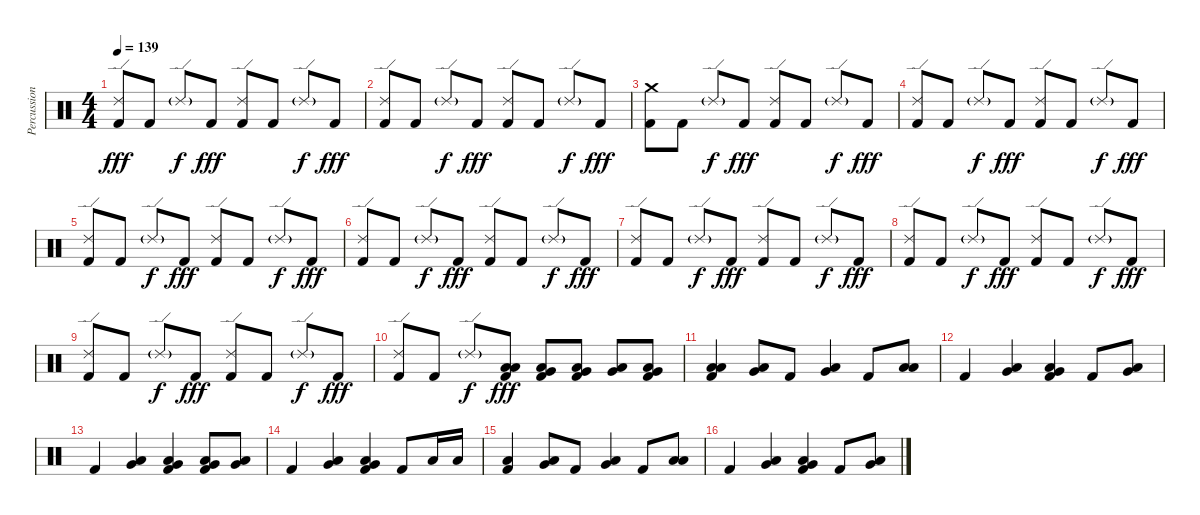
\track ("Percussion" "Percussion") {instrument percussion}
\staff {score}
\articulation defaults
\ts (4 4)
\tempo 139
\clef neutral
\ks c
("Ride (edge) 2" "Kick (hit) 2").8{dy fff} "Kick (hit) 2".8 "Ride (edge) 2"{g}.8{dy f} "Kick (hit) 2".8{dy fff} ("Ride (edge) 2" "Kick (hit) 2").8 "Kick (hit) 2".8 "Ride (edge) 2"{g}.8{dy f} "Kick (hit) 2".8{dy fff} |
("Ride (edge) 2" "Kick (hit) 2").8 "Kick (hit) 2".8 "Ride (edge) 2"{g}.8{dy f} "Kick (hit) 2".8{dy fff} ("Ride (edge) 2" "Kick (hit) 2").8 "Kick (hit) 2".8 "Ride (edge) 2"{g}.8{dy f} "Kick (hit) 2".8{dy fff} |
("Crash medium (hit)" "Kick (hit) 2").8 "Kick (hit) 2".8 "Ride (edge) 2"{g}.8{dy f} "Kick (hit) 2".8{dy fff} ("Ride (edge) 2" "Kick (hit) 2").8 "Kick (hit) 2".8 "Ride (edge) 2"{g}.8{dy f} "Kick (hit) 2".8{dy fff} |
("Ride (edge) 2" "Kick (hit) 2").8 "Kick (hit) 2".8 "Ride (edge) 2"{g}.8{dy f} "Kick (hit) 2".8{dy fff} ("Ride (edge) 2" "Kick (hit) 2").8 "Kick (hit) 2".8 "Ride (edge) 2"{g}.8{dy f} "Kick (hit) 2".8{dy fff} |
("Ride (edge) 2" "Kick (hit) 2").8 "Kick (hit) 2".8 "Ride (edge) 2"{g}.8{dy f} "Kick (hit) 2".8{dy fff} ("Ride (edge) 2" "Kick (hit) 2").8 "Kick (hit) 2".8 "Ride (edge) 2"{g}.8{dy f} "Kick (hit) 2".8{dy fff} |
("Ride (edge) 2" "Kick (hit) 2").8 "Kick (hit) 2".8 "Ride (edge) 2"{g}.8{dy f} "Kick (hit) 2".8{dy fff} ("Ride (edge) 2" "Kick (hit) 2").8 "Kick (hit) 2".8 "Ride (edge) 2"{g}.8{dy f} "Kick (hit) 2".8{dy fff} |
("Ride (edge) 2" "Kick (hit) 2").8 "Kick (hit) 2".8 "Ride (edge) 2"{g}.8{dy f} "Kick (hit) 2".8{dy fff} ("Ride (edge) 2" "Kick (hit) 2").8 "Kick (hit) 2".8 "Ride (edge) 2"{g}.8{dy f} "Kick (hit) 2".8{dy fff} |
("Ride (edge) 2" "Kick (hit) 2").8 "Kick (hit) 2".8 "Ride (edge) 2"{g}.8{dy f} "Kick (hit) 2".8{dy fff} ("Ride (edge) 2" "Kick (hit) 2").8 "Kick (hit) 2".8 "Ride (edge) 2"{g}.8{dy f} "Kick (hit) 2".8{dy fff} |
("Ride (edge) 2" "Kick (hit) 2").8 "Kick (hit) 2".8 "Ride (edge) 2"{g}.8{dy f} "Kick (hit) 2".8{dy fff} ("Ride (edge) 2" "Kick (hit) 2").8 "Kick (hit) 2".8 "Ride (edge) 2"{g}.8{dy f} "Kick (hit) 2".8{dy fff} |
("Ride (edge) 2" "Kick (hit) 2").8 "Kick (hit) 2".8 "Ride (edge) 2"{g}.8{dy f} ("Kick (hit) 2" "Low Tom (hit)" "Low Tom (hit)").8{bd 480 dy fff} ("Kick (hit) 2" "Low Tom (hit)" "Very Low Tom (hit)").8 ("Kick (hit) 2" "Low Tom (hit)" "Very Low Tom (hit)").8 ("Very Low Tom (hit)" "Low Floor Tom (hit)").8 ("Kick (hit) 2" "Very Low Tom (hit)" "Low Floor Tom (hit)").8 |
("Kick (hit) 2" "Low Floor Tom (hit)" "Low Floor Tom (hit)").4{bd 240} ("Very Low Tom (hit)" "Low Floor Tom (hit)").8{bd 480} "Kick (hit) 2".8 ("Very Low Tom (hit)" "Low Floor Tom (hit)").4{bd 480} "Kick (hit) 2".8 ("Low Floor Tom (hit)" "Low Floor Tom (hit)").8{bd 480} |
"Kick (hit) 2".4 ("Very Low Tom (hit)" "Low Floor Tom (hit)").4{bd 240} ("Kick (hit) 2" "Very Low Tom (hit)" "Low Floor Tom (hit)").4{bd 240} "Kick (hit) 2".8 ("Very Low Tom (hit)" "Low Floor Tom (hit)").8{bd 480} |
"Kick (hit) 2".4 ("Very Low Tom (hit)" "Low Floor Tom (hit)").4{bd 240} ("Kick (hit) 2" "Very Low Tom (hit)" "Low Floor Tom (hit)").4{bd 240} ("Kick (hit) 2" "Very Low Tom (hit)" "Low Floor Tom (hit)").8{bd 480} ("Very Low Tom (hit)" "Low Floor Tom (hit)").8{bd 480} |
"Kick (hit) 2".4 ("Very Low Tom (hit)" "Low Floor Tom (hit)").4{bd 240} ("Kick (hit) 2" "Very Low Tom (hit)" "Low Floor Tom (hit)").4{bd 240} "Kick (hit) 2".8 "Low Floor Tom (hit)".16 "Low Floor Tom (hit)".16 |
("Kick (hit) 2" "Low Floor Tom (hit)").4 ("Very Low Tom (hit)" "Low Floor Tom (hit)").8{bd 480} "Kick (hit) 2".8 ("Very Low Tom (hit)" "Low Floor Tom (hit)").4{bd 240} "Kick (hit) 2".8 ("Low Floor Tom (hit)" "Low Floor Tom (hit)").8{bd 480} |
"Kick (hit) 2".4 ("Very Low Tom (hit)" "Low Floor Tom (hit)").4{bd 240} ("Kick (hit) 2" "Very Low Tom (hit)" "Low Floor Tom (hit)").4{bd 240} "Kick (hit) 2".8 ("Very Low Tom (hit)" "Low Floor Tom (hit)").8{bd 480}
